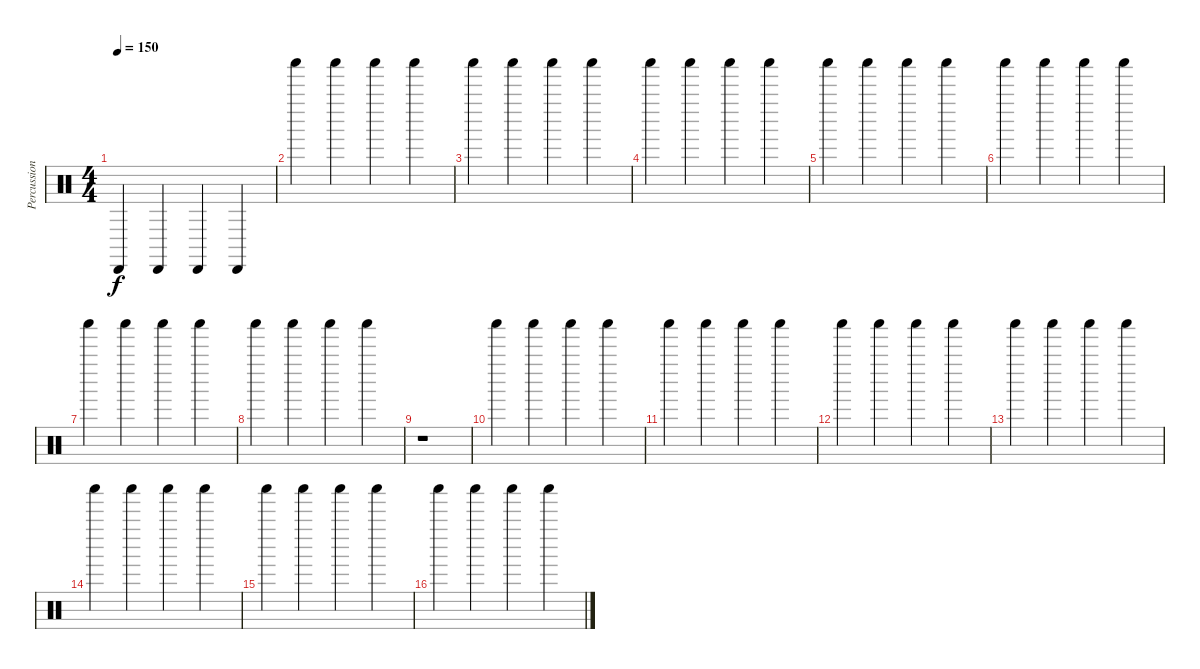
\track ("Percussion - Aki Hakala" "Percussion") {instrument percussion}
\staff {score}
\articulation defaults
\ts (4 4)
\tempo 150
\clef neutral
\ks c "Cabasa (hit)".4{dy f} "Cabasa (hit)".4 "Cabasa (hit)".4 "Cabasa (hit)".4
|
"Shaker (hit)".4 "Shaker (hit)".4 "Shaker (hit)".4 "Shaker (hit)".4 |
"Shaker (hit)".4 "Shaker (hit)".4 "Shaker (hit)".4 "Shaker (hit)".4 |
"Shaker (hit)".4 "Shaker (hit)".4 "Shaker (hit)".4 "Shaker (hit)".4 |
"Shaker (hit)".4 "Shaker (hit)".4 "Shaker (hit)".4 "Shaker (hit)".4 |
"Shaker (hit)".4 "Shaker (hit)".4 "Shaker (hit)".4 "Shaker (hit)".4 |
"Shaker (hit)".4 "Shaker (hit)".4 "Shaker (hit)".4 "Shaker (hit)".4 |
"Shaker (hit)".4 "Shaker (hit)".4 "Shaker (hit)".4 "Shaker (hit)".4 |
r.1 |
"Shaker (hit)".4 "Shaker (hit)".4 "Shaker (hit)".4 "Shaker (hit)".4 |
"Shaker (hit)".4 "Shaker (hit)".4 "Shaker (hit)".4 "Shaker (hit)".4 |
"Shaker (hit)".4 "Shaker (hit)".4 "Shaker (hit)".4 "Shaker (hit)".4 |
"Shaker (hit)".4 "Shaker (hit)".4 "Shaker (hit)".4 "Shaker (hit)".4 |
"Shaker (hit)".4 "Shaker (hit)".4 "Shaker (hit)".4 "Shaker (hit)".4 |
"Shaker (hit)".4 "Shaker (hit)".4 "Shaker (hit)".4 "Shaker (hit)".4 |
"Shaker (hit)".4 "Shaker (hit)".4 "Shaker (hit)".4 "Shaker (hit)".4
